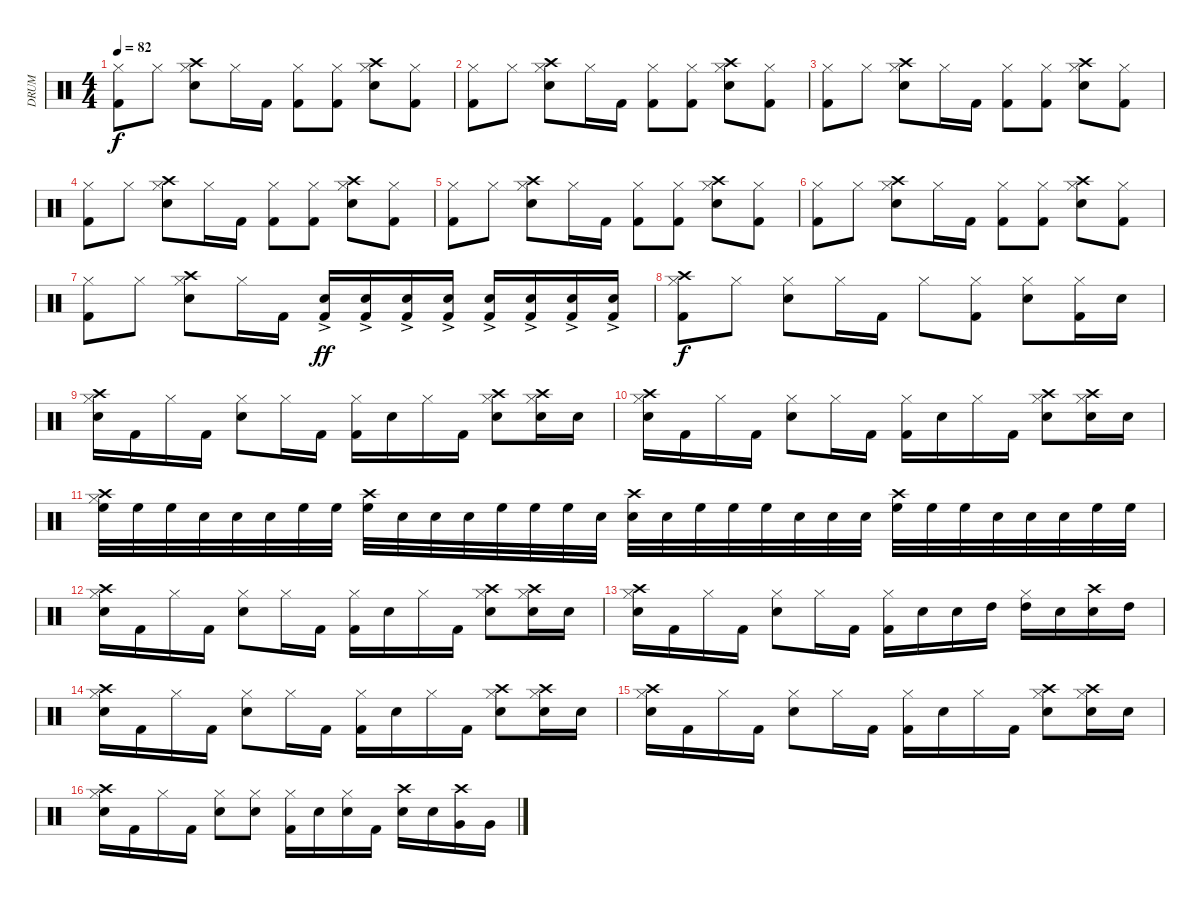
\track ("DRUM" "DRUM") {instrument percussion}
\staff {score}
\articulation defaults
\ts (4 4)
\tempo 82
\clef neutral
\ks c
("Hi-Hat (closed)" "Kick (hit) 2").8{dy f} "Hi-Hat (closed)".8 ("Crash high (hit)" "Hi-Hat (closed)" "Electric Snare (hit)").8 "Hi-Hat (closed)".16 "Kick (hit) 2".16 ("Hi-Hat (closed)" "Kick (hit) 2").8 ("Hi-Hat (closed)" "Kick (hit) 2").8 ("Crash high (hit)" "Hi-Hat (closed)" "Electric Snare (hit)").8 ("Hi-Hat (closed)" "Kick (hit) 2").8 |
("Hi-Hat (closed)" "Kick (hit) 2").8 "Hi-Hat (closed)".8 ("Crash high (hit)" "Hi-Hat (closed)" "Electric Snare (hit)").8 "Hi-Hat (closed)".16 "Kick (hit) 2".16 ("Hi-Hat (closed)" "Kick (hit) 2").8 ("Hi-Hat (closed)" "Kick (hit) 2").8 ("Crash high (hit)" "Hi-Hat (closed)" "Electric Snare (hit)").8 ("Hi-Hat (closed)" "Kick (hit) 2").8 |
("Hi-Hat (closed)" "Kick (hit) 2").8 "Hi-Hat (closed)".8 ("Crash high (hit)" "Hi-Hat (closed)" "Electric Snare (hit)").8 "Hi-Hat (closed)".16 "Kick (hit) 2".16 ("Hi-Hat (closed)" "Kick (hit) 2").8 ("Hi-Hat (closed)" "Kick (hit) 2").8 ("Crash high (hit)" "Hi-Hat (closed)" "Electric Snare (hit)").8 ("Hi-Hat (closed)" "Kick (hit) 2").8 |
("Hi-Hat (closed)" "Kick (hit) 2").8 "Hi-Hat (closed)".8 ("Crash high (hit)" "Hi-Hat (closed)" "Electric Snare (hit)").8 "Hi-Hat (closed)".16 "Kick (hit) 2".16 ("Hi-Hat (closed)" "Kick (hit) 2").8 ("Hi-Hat (closed)" "Kick (hit) 2").8 ("Crash high (hit)" "Hi-Hat (closed)" "Electric Snare (hit)").8 ("Hi-Hat (closed)" "Kick (hit) 2").8 |
("Hi-Hat (closed)" "Kick (hit) 2").8 "Hi-Hat (closed)".8 ("Crash high (hit)" "Hi-Hat (closed)" "Electric Snare (hit)").8 "Hi-Hat (closed)".16 "Kick (hit) 2".16 ("Hi-Hat (closed)" "Kick (hit) 2").8 ("Hi-Hat (closed)" "Kick (hit) 2").8 ("Crash high (hit)" "Hi-Hat (closed)" "Electric Snare (hit)").8 ("Hi-Hat (closed)" "Kick (hit) 2").8 |
("Hi-Hat (closed)" "Kick (hit) 2").8 "Hi-Hat (closed)".8 ("Crash high (hit)" "Hi-Hat (closed)" "Electric Snare (hit)").8 "Hi-Hat (closed)".16 "Kick (hit) 2".16 ("Hi-Hat (closed)" "Kick (hit) 2").8 ("Hi-Hat (closed)" "Kick (hit) 2").8 ("Crash high (hit)" "Hi-Hat (closed)" "Electric Snare (hit)").8 ("Hi-Hat (closed)" "Kick (hit) 2").8 |
("Hi-Hat (closed)" "Kick (hit) 2").8 "Hi-Hat (closed)".8 ("Crash high (hit)" "Hi-Hat (closed)" "Electric Snare (hit)").8 "Hi-Hat (closed)".16 "Kick (hit) 2".16 ("Electric Snare (hit)"{ac} "Kick (hit) 2"{ac}).16{dy ff volume 4} ("Electric Snare (hit)"{ac} "Kick (hit) 2"{ac}).16{volume 10} ("Electric Snare (hit)"{ac} "Kick (hit) 2"{ac}).16 ("Electric Snare (hit)"{ac} "Kick (hit) 2"{ac}).16 ("Electric Snare (hit)"{ac} "Kick (hit) 2"{ac}).16 ("Electric Snare (hit)"{ac} "Kick (hit) 2"{ac}).16 ("Electric Snare (hit)"{ac} "Kick (hit) 2"{ac}).16 ("Electric Snare (hit)"{ac} "Kick (hit) 2"{ac}).16 |
("Crash high (hit)" "Hi-Hat (closed)" "Kick (hit) 2").8{dy f} "Hi-Hat (closed)".8 ("Hi-Hat (closed)" "Electric Snare (hit)").8 "Hi-Hat (closed)".16 "Kick (hit) 2".16 "Hi-Hat (closed)".8 ("Hi-Hat (closed)" "Kick (hit) 2").8 ("Hi-Hat (closed)" "Electric Snare (hit)").8 ("Hi-Hat (closed)" "Kick (hit) 2").16 "Electric Snare (hit)".16 |
("Crash high (hit)" "Hi-Hat (closed)" "Electric Snare (hit)").16 "Kick (hit) 2".16 "Hi-Hat (closed)".16 "Kick (hit) 2".16 ("Hi-Hat (closed)" "Electric Snare (hit)").8 "Hi-Hat (closed)".16 "Kick (hit) 2".16 ("Hi-Hat (closed)" "Kick (hit) 2").16 "Electric Snare (hit)".16 "Hi-Hat (closed)".16 "Kick (hit) 2".16 ("Crash high (hit)" "Hi-Hat (closed)" "Electric Snare (hit)").8 ("Crash high (hit)" "Hi-Hat (closed)" "Electric Snare (hit)").16 "Electric Snare (hit)".16 |
("Crash high (hit)" "Hi-Hat (closed)" "Electric Snare (hit)").16 "Kick (hit) 2".16 "Hi-Hat (closed)".16 "Kick (hit) 2".16 ("Hi-Hat (closed)" "Electric Snare (hit)").8 "Hi-Hat (closed)".16 "Kick (hit) 2".16 ("Hi-Hat (closed)" "Kick (hit) 2").16 "Electric Snare (hit)".16 "Hi-Hat (closed)".16 "Kick (hit) 2".16 ("Crash high (hit)" "Hi-Hat (closed)" "Electric Snare (hit)").8 ("Crash high (hit)" "Hi-Hat (closed)" "Electric Snare (hit)").16 "Electric Snare (hit)".16 |
("Crash high (hit)" "Hi-Hat (closed)" "High Floor Tom (hit)").32 "High Floor Tom (hit)".32 "High Floor Tom (hit)".32 "Electric Snare (hit)".32 "Electric Snare (hit)".32 "Electric Snare (hit)".32 "High Floor Tom (hit)".32 "High Floor Tom (hit)".32 ("Crash high (hit)" "High Floor Tom (hit)").32 "Electric Snare (hit)".32 "Electric Snare (hit)".32 "Electric Snare (hit)".32 "High Floor Tom (hit)".32 "High Floor Tom (hit)".32 "High Floor Tom (hit)".32 "Electric Snare (hit)".32 ("Crash high (hit)" "Electric Snare (hit)").32 "Electric Snare (hit)".32 "High Floor Tom (hit)".32 "High Floor Tom (hit)".32 "High Floor Tom (hit)".32 "Electric Snare (hit)".32 "Electric Snare (hit)".32 "Electric Snare (hit)".32 ("Crash high (hit)" "High Floor Tom (hit)").32 "High Floor Tom (hit)".32 "High Floor Tom (hit)".32 "Electric Snare (hit)".32 "Electric Snare (hit)".32 "Electric Snare (hit)".32 "High Floor Tom (hit)".32 "High Floor Tom (hit)".32 |
("Crash high (hit)" "Hi-Hat (closed)" "Electric Snare (hit)").16 "Kick (hit) 2".16 "Hi-Hat (closed)".16 "Kick (hit) 2".16 ("Hi-Hat (closed)" "Electric Snare (hit)").8 "Hi-Hat (closed)".16 "Kick (hit) 2".16 ("Hi-Hat (closed)" "Kick (hit) 2").16 "Electric Snare (hit)".16 "Hi-Hat (closed)".16 "Kick (hit) 2".16 ("Crash high (hit)" "Hi-Hat (closed)" "Electric Snare (hit)").8 ("Crash high (hit)" "Hi-Hat (closed)" "Electric Snare (hit)").16 "Electric Snare (hit)".16 |
("Crash high (hit)" "Hi-Hat (closed)" "Electric Snare (hit)").16 "Kick (hit) 2".16 "Hi-Hat (closed)".16 "Kick (hit) 2".16 ("Hi-Hat (closed)" "Electric Snare (hit)").8 "Hi-Hat (closed)".16 "Kick (hit) 2".16 ("Hi-Hat (closed)" "Kick (hit) 2").16 "Electric Snare (hit)".16 "Electric Snare (hit)".16 "High Tom (hit)".16 ("Hi-Hat (closed)" "High Tom (hit)").16 "Electric Snare (hit)".16 ("Crash high (hit)" "Electric Snare (hit)").16 "High Tom (hit)".16 |
("Crash high (hit)" "Hi-Hat (closed)" "Electric Snare (hit)").16 "Kick (hit) 2".16 "Hi-Hat (closed)".16 "Kick (hit) 2".16 ("Hi-Hat (closed)" "Electric Snare (hit)").8 "Hi-Hat (closed)".16 "Kick (hit) 2".16 ("Hi-Hat (closed)" "Kick (hit) 2").16 "Electric Snare (hit)".16 "Hi-Hat (closed)".16 "Kick (hit) 2".16 ("Crash high (hit)" "Hi-Hat (closed)" "Electric Snare (hit)").8 ("Crash high (hit)" "Hi-Hat (closed)" "Electric Snare (hit)").16 "Electric Snare (hit)".16 |
("Crash high (hit)" "Hi-Hat (closed)" "Electric Snare (hit)").16 "Kick (hit) 2".16 "Hi-Hat (closed)".16 "Kick (hit) 2".16 ("Hi-Hat (closed)" "Electric Snare (hit)").8 "Hi-Hat (closed)".16 "Kick (hit) 2".16 ("Hi-Hat (closed)" "Kick (hit) 2").16 "Electric Snare (hit)".16 "Hi-Hat (closed)".16 "Kick (hit) 2".16 ("Crash high (hit)" "Hi-Hat (closed)" "Electric Snare (hit)").8 ("Crash high (hit)" "Hi-Hat (closed)" "Electric Snare (hit)").16 "Electric Snare (hit)".16 |
("Crash high (hit)" "Hi-Hat (closed)" "Electric Snare (hit)").16 "Kick (hit) 2".16 "Hi-Hat (closed)".16 "Kick (hit) 2".16 ("Hi-Hat (closed)" "Electric Snare (hit)").8 ("Hi-Hat (closed)" "Electric Snare (hit)").8 ("Hi-Hat (closed)" "Kick (hit) 2").16 "Electric Snare (hit)".16 ("Hi-Hat (closed)" "Electric Snare (hit)").16 "Kick (hit) 2".16 ("Crash high (hit)" "Electric Snare (hit)").16 "Electric Snare (hit)".16 ("Crash high (hit)" "Very Low Tom (hit)").16 "Very Low Tom (hit)".16
